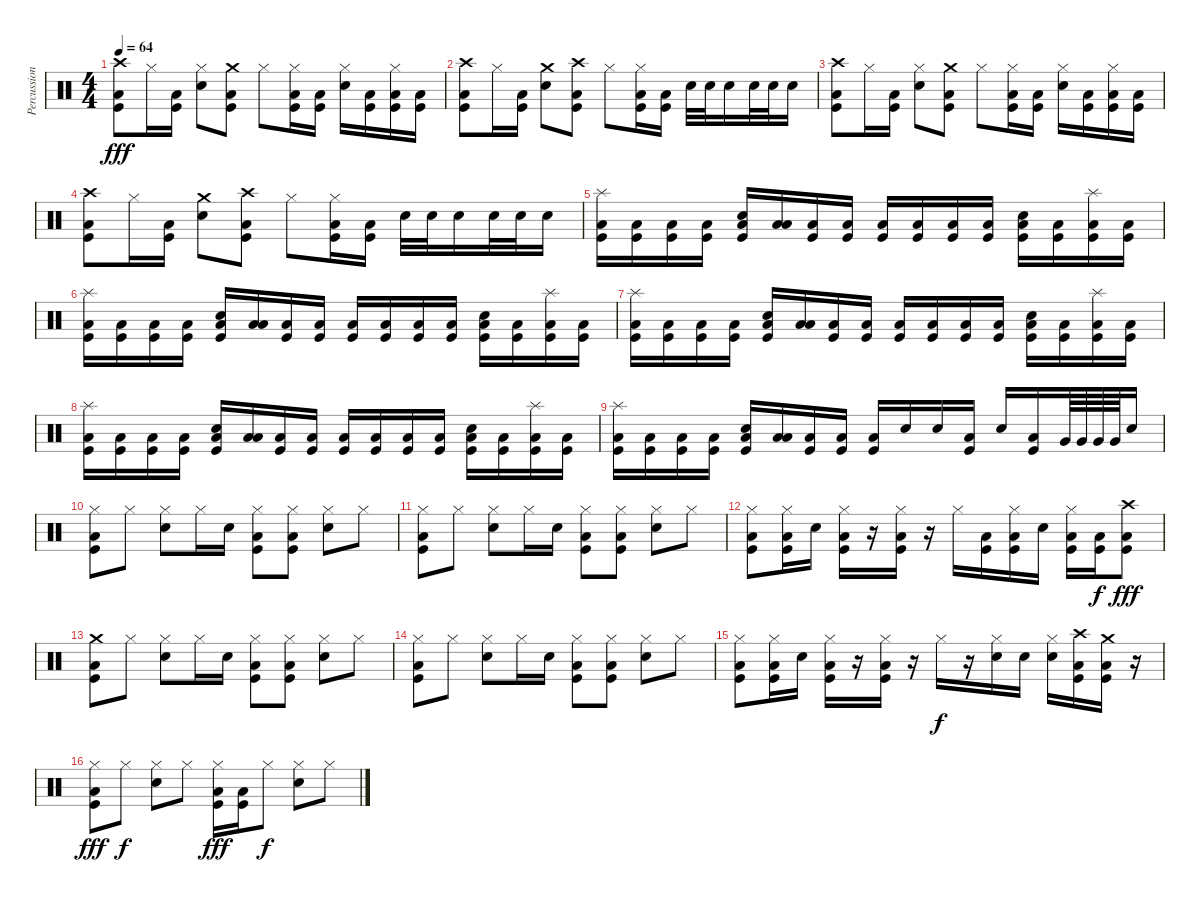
\track ("Percussions" "Percussion") {instrument percussion}
\staff {score}
\articulation defaults
\ts (4 4)
\tempo 64
\clef neutral
\ks c
("Crash high (hit)" "Low Floor Tom (hit)" "Kick (hit)").8{dy fff} "Hi-Hat (closed)".16 ("Low Floor Tom (hit)" "Kick (hit)").16 ("Hi-Hat (closed)" "Electric Snare (hit)").8 ("Crash medium (hit)" "Low Floor Tom (hit)" "Kick (hit)").8 "Hi-Hat (closed)".8 ("Hi-Hat (closed)" "Low Floor Tom (hit)" "Kick (hit)").16 ("Low Floor Tom (hit)" "Kick (hit)").16 ("Hi-Hat (closed)" "Electric Snare (hit)").16 ("Low Floor Tom (hit)" "Kick (hit)").16 ("Hi-Hat (closed)" "Low Floor Tom (hit)" "Kick (hit)").16 ("Low Floor Tom (hit)" "Kick (hit)").16 |
("Crash high (hit)" "Low Floor Tom (hit)" "Kick (hit)").8 "Hi-Hat (closed)".16 ("Low Floor Tom (hit)" "Kick (hit)").16 ("Crash medium (hit)" "Electric Snare (hit)").8 ("Crash high (hit)" "Low Floor Tom (hit)" "Kick (hit)").8 "Hi-Hat (closed)".8 ("Hi-Hat (closed)" "Low Floor Tom (hit)" "Kick (hit)").16 ("Low Floor Tom (hit)" "Kick (hit)").16 "Electric Snare (hit)".32 "Electric Snare (hit)".32 "Electric Snare (hit)".16 "Electric Snare (hit)".32 "Electric Snare (hit)".32 "Electric Snare (hit)".16 |
("Crash high (hit)" "Low Floor Tom (hit)" "Kick (hit)").8 "Hi-Hat (closed)".16 ("Low Floor Tom (hit)" "Kick (hit)").16 ("Hi-Hat (closed)" "Electric Snare (hit)").8 ("Crash medium (hit)" "Low Floor Tom (hit)" "Kick (hit)").8 "Hi-Hat (closed)".8 ("Hi-Hat (closed)" "Low Floor Tom (hit)" "Kick (hit)").16 ("Low Floor Tom (hit)" "Kick (hit)").16 ("Hi-Hat (closed)" "Electric Snare (hit)").16 ("Low Floor Tom (hit)" "Kick (hit)").16 ("Hi-Hat (closed)" "Low Floor Tom (hit)" "Kick (hit)").16 ("Low Floor Tom (hit)" "Kick (hit)").16 |
("Crash high (hit)" "Low Floor Tom (hit)" "Kick (hit)").8 "Hi-Hat (closed)".16 ("Low Floor Tom (hit)" "Kick (hit)").16 ("Crash medium (hit)" "Electric Snare (hit)").8 ("Crash high (hit)" "Low Floor Tom (hit)" "Kick (hit)").8 "Hi-Hat (closed)".8 ("Hi-Hat (closed)" "Low Floor Tom (hit)" "Kick (hit)").16 ("Low Floor Tom (hit)" "Kick (hit)").16 "Electric Snare (hit)".32 "Electric Snare (hit)".32 "Electric Snare (hit)".16 "Electric Snare (hit)".32 "Electric Snare (hit)".32 "Electric Snare (hit)".16 |
("Splash (hit)" "Low Floor Tom (hit)" "Kick (hit)").16 ("Low Floor Tom (hit)" "Kick (hit)").16 ("Low Floor Tom (hit)" "Kick (hit)").16 ("Low Floor Tom (hit)" "Kick (hit)").16 ("Electric Snare (hit)" "Low Floor Tom (hit)" "Kick (hit)").16 ("Low Floor Tom (hit)" "Low Floor Tom (hit)").16 ("Low Floor Tom (hit)" "Kick (hit)").16 ("Low Floor Tom (hit)" "Kick (hit)").16 ("Low Floor Tom (hit)" "Kick (hit)").16 ("Low Floor Tom (hit)" "Kick (hit)").16 ("Low Floor Tom (hit)" "Kick (hit)").16 ("Low Floor Tom (hit)" "Kick (hit)").16 ("Electric Snare (hit)" "Low Floor Tom (hit)" "Kick (hit)").16 ("Low Floor Tom (hit)" "Kick (hit)").16 ("Splash (hit)" "Low Floor Tom (hit)" "Kick (hit)").16 ("Low Floor Tom (hit)" "Kick (hit)").16 |
("Splash (hit)" "Low Floor Tom (hit)" "Kick (hit)").16 ("Low Floor Tom (hit)" "Kick (hit)").16 ("Low Floor Tom (hit)" "Kick (hit)").16 ("Low Floor Tom (hit)" "Kick (hit)").16 ("Electric Snare (hit)" "Low Floor Tom (hit)" "Kick (hit)").16 ("Low Floor Tom (hit)" "Low Floor Tom (hit)").16 ("Low Floor Tom (hit)" "Kick (hit)").16 ("Low Floor Tom (hit)" "Kick (hit)").16 ("Low Floor Tom (hit)" "Kick (hit)").16 ("Low Floor Tom (hit)" "Kick (hit)").16 ("Low Floor Tom (hit)" "Kick (hit)").16 ("Low Floor Tom (hit)" "Kick (hit)").16 ("Electric Snare (hit)" "Low Floor Tom (hit)" "Kick (hit)").16 ("Low Floor Tom (hit)" "Kick (hit)").16 ("Splash (hit)" "Low Floor Tom (hit)" "Kick (hit)").16 ("Low Floor Tom (hit)" "Kick (hit)").16 |
("Splash (hit)" "Low Floor Tom (hit)" "Kick (hit)").16 ("Low Floor Tom (hit)" "Kick (hit)").16 ("Low Floor Tom (hit)" "Kick (hit)").16 ("Low Floor Tom (hit)" "Kick (hit)").16 ("Electric Snare (hit)" "Low Floor Tom (hit)" "Kick (hit)").16 ("Low Floor Tom (hit)" "Low Floor Tom (hit)").16 ("Low Floor Tom (hit)" "Kick (hit)").16 ("Low Floor Tom (hit)" "Kick (hit)").16 ("Low Floor Tom (hit)" "Kick (hit)").16 ("Low Floor Tom (hit)" "Kick (hit)").16 ("Low Floor Tom (hit)" "Kick (hit)").16 ("Low Floor Tom (hit)" "Kick (hit)").16 ("Electric Snare (hit)" "Low Floor Tom (hit)" "Kick (hit)").16 ("Low Floor Tom (hit)" "Kick (hit)").16 ("Splash (hit)" "Low Floor Tom (hit)" "Kick (hit)").16 ("Low Floor Tom (hit)" "Kick (hit)").16 |
("Splash (hit)" "Low Floor Tom (hit)" "Kick (hit)").16 ("Low Floor Tom (hit)" "Kick (hit)").16 ("Low Floor Tom (hit)" "Kick (hit)").16 ("Low Floor Tom (hit)" "Kick (hit)").16 ("Electric Snare (hit)" "Low Floor Tom (hit)" "Kick (hit)").16 ("Low Floor Tom (hit)" "Low Floor Tom (hit)").16 ("Low Floor Tom (hit)" "Kick (hit)").16 ("Low Floor Tom (hit)" "Kick (hit)").16 ("Low Floor Tom (hit)" "Kick (hit)").16 ("Low Floor Tom (hit)" "Kick (hit)").16 ("Low Floor Tom (hit)" "Kick (hit)").16 ("Low Floor Tom (hit)" "Kick (hit)").16 ("Electric Snare (hit)" "Low Floor Tom (hit)" "Kick (hit)").16 ("Low Floor Tom (hit)" "Kick (hit)").16 ("Splash (hit)" "Low Floor Tom (hit)" "Kick (hit)").16 ("Low Floor Tom (hit)" "Kick (hit)").16 |
("Splash (hit)" "Low Floor Tom (hit)" "Kick (hit)").16 ("Low Floor Tom (hit)" "Kick (hit)").16 ("Low Floor Tom (hit)" "Kick (hit)").16 ("Low Floor Tom (hit)" "Kick (hit)").16 ("Electric Snare (hit)" "Low Floor Tom (hit)" "Kick (hit)").16 ("Low Floor Tom (hit)" "Low Floor Tom (hit)").16 ("Low Floor Tom (hit)" "Kick (hit)").16 ("Low Floor Tom (hit)" "Kick (hit)").16 ("Low Floor Tom (hit)" "Kick (hit)").16 "Electric Snare (hit)".16 "Electric Snare (hit)".16 ("Low Floor Tom (hit)" "Kick (hit)").16 "Electric Snare (hit)".16 ("Low Floor Tom (hit)" "Kick (hit)").16 "Very Low Tom (hit)".64 "Very Low Tom (hit)".64 "Very Low Tom (hit)".64 "Very Low Tom (hit)".64 "Electric Snare (hit)".16 |
("Hi-Hat (closed)" "Low Floor Tom (hit)" "Kick (hit)").8 "Hi-Hat (closed)".8 ("Hi-Hat (closed)" "Electric Snare (hit)").8 "Hi-Hat (closed)".16 "Electric Snare (hit)".16 ("Hi-Hat (closed)" "Low Floor Tom (hit)" "Kick (hit)").8 ("Hi-Hat (closed)" "Low Floor Tom (hit)" "Kick (hit)").8 ("Hi-Hat (closed)" "Electric Snare (hit)").8 "Hi-Hat (closed)".8 |
("Hi-Hat (closed)" "Low Floor Tom (hit)" "Kick (hit)").8 "Hi-Hat (closed)".8 ("Hi-Hat (closed)" "Electric Snare (hit)").8 "Hi-Hat (closed)".16 "Electric Snare (hit)".16 ("Hi-Hat (closed)" "Low Floor Tom (hit)" "Kick (hit)").8 ("Hi-Hat (closed)" "Low Floor Tom (hit)" "Kick (hit)").8 ("Hi-Hat (closed)" "Electric Snare (hit)").8 "Hi-Hat (closed)".8 |
("Hi-Hat (closed)" "Low Floor Tom (hit)" "Kick (hit)").8 ("Hi-Hat (closed)" "Low Floor Tom (hit)" "Kick (hit)").16 "Electric Snare (hit)".16 ("Hi-Hat (closed)" "Low Floor Tom (hit)" "Kick (hit)").16 r.16 ("Hi-Hat (closed)" "Low Floor Tom (hit)" "Kick (hit)").16 r.16 "Hi-Hat (closed)".16 ("Low Floor Tom (hit)" "Kick (hit)").16 ("Hi-Hat (closed)" "Low Floor Tom (hit)" "Kick (hit)").16 "Electric Snare (hit)".16 ("Hi-Hat (closed)" "Low Floor Tom (hit)" "Kick (hit)").16 ("Low Floor Tom (hit)" "Kick (hit)").16{dy f} ("Crash high (hit)" "Low Floor Tom (hit)" "Kick (hit)").8{dy fff} |
("Crash medium (hit)" "Low Floor Tom (hit)" "Kick (hit)").8 "Hi-Hat (closed)".8 ("Hi-Hat (closed)" "Electric Snare (hit)").8 "Hi-Hat (closed)".16 "Electric Snare (hit)".16 ("Hi-Hat (closed)" "Low Floor Tom (hit)" "Kick (hit)").8 ("Hi-Hat (closed)" "Low Floor Tom (hit)" "Kick (hit)").8 ("Hi-Hat (closed)" "Electric Snare (hit)").8 "Hi-Hat (closed)".8 |
("Hi-Hat (closed)" "Low Floor Tom (hit)" "Kick (hit)").8 "Hi-Hat (closed)".8 ("Hi-Hat (closed)" "Electric Snare (hit)").8 "Hi-Hat (closed)".16 "Electric Snare (hit)".16 ("Hi-Hat (closed)" "Low Floor Tom (hit)" "Kick (hit)").8 ("Hi-Hat (closed)" "Low Floor Tom (hit)" "Kick (hit)").8 ("Hi-Hat (closed)" "Electric Snare (hit)").8 "Hi-Hat (closed)".8 |
("Hi-Hat (closed)" "Low Floor Tom (hit)" "Kick (hit)").8 ("Hi-Hat (closed)" "Low Floor Tom (hit)" "Kick (hit)").16 "Electric Snare (hit)".16 ("Hi-Hat (closed)" "Low Floor Tom (hit)" "Kick (hit)").16 r.16 ("Hi-Hat (closed)" "Low Floor Tom (hit)" "Kick (hit)").16 r.16 "Hi-Hat (closed)".16{dy f} r.16 ("Hi-Hat (closed)" "Electric Snare (hit)").16 "Electric Snare (hit)".16 ("Hi-Hat (closed)" "Electric Snare (hit)").16 ("Crash high (hit)" "Low Floor Tom (hit)" "Kick (hit)").16 ("Crash medium (hit)" "Low Floor Tom (hit)" "Kick (hit)").16 r.16 |
("Hi-Hat (closed)" "Low Floor Tom (hit)" "Kick (hit)").8{dy fff} "Hi-Hat (closed)".8{dy f} ("Hi-Hat (closed)" "Electric Snare (hit)").8 "Hi-Hat (closed)".8 ("Hi-Hat (closed)" "Low Floor Tom (hit)" "Kick (hit)").16{dy fff} ("Low Floor Tom (hit)" "Kick (hit)").16 "Hi-Hat (closed)".8{dy f} ("Hi-Hat (closed)" "Electric Snare (hit)").8 "Hi-Hat (closed)".8
